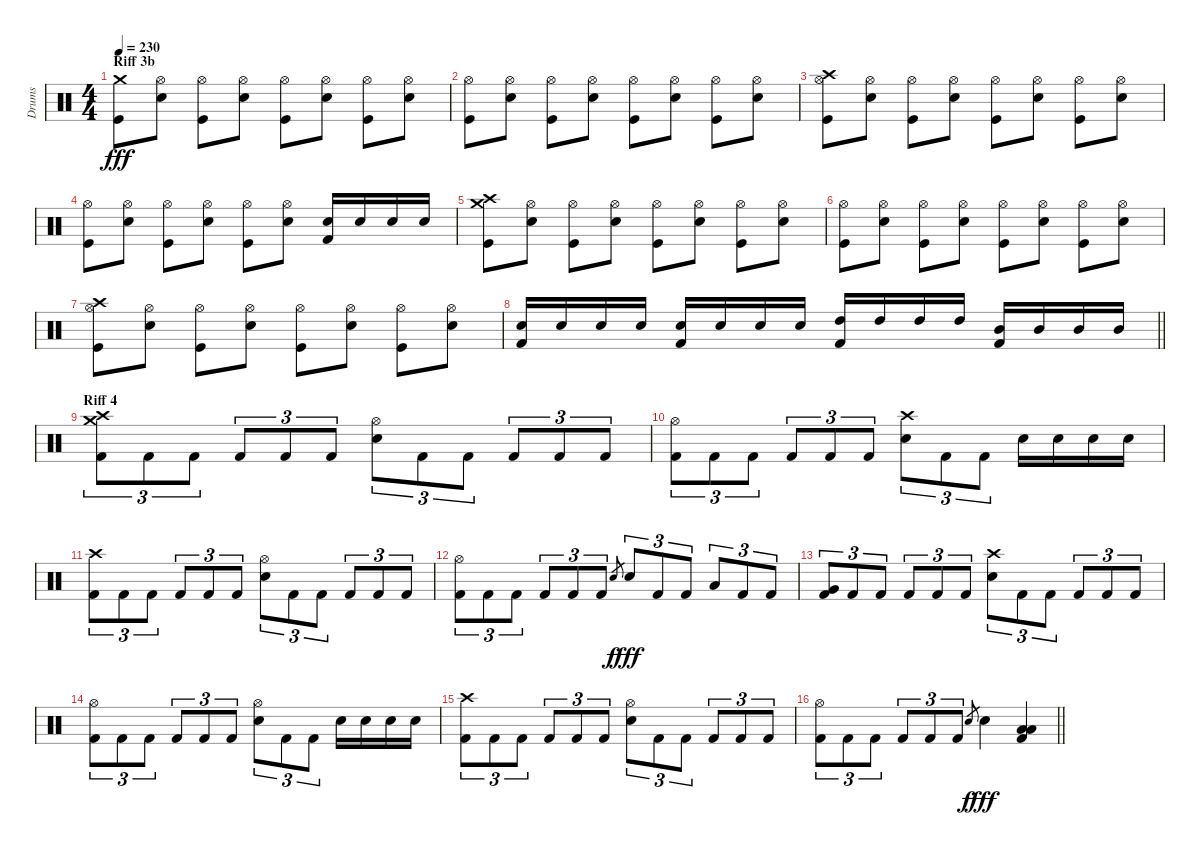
\track ("Drums" "Drums") {instrument percussion}
\staff {score}
\articulation defaults
\ts (4 4)
\section ("" "Riff 3b")
\tempo 230
\clef neutral
\ks c
("Crash medium (hit)" "Kick (hit)").8{dy fff} ("Hi-Hat (open)" "Snare (hit) 2").8 ("Hi-Hat (open)" "Kick (hit)").8 ("Hi-Hat (open)" "Snare (hit) 2").8 ("Hi-Hat (open)" "Kick (hit)").8 ("Hi-Hat (open)" "Snare (hit) 2").8 ("Hi-Hat (open)" "Kick (hit)").8 ("Hi-Hat (open)" "Snare (hit) 2").8 |
("Hi-Hat (open)" "Kick (hit)").8 ("Hi-Hat (open)" "Snare (hit) 2").8 ("Hi-Hat (open)" "Kick (hit)").8 ("Hi-Hat (open)" "Snare (hit) 2").8 ("Hi-Hat (open)" "Kick (hit)").8 ("Hi-Hat (open)" "Snare (hit) 2").8 ("Hi-Hat (open)" "Kick (hit)").8 ("Hi-Hat (open)" "Snare (hit) 2").8 |
("Crash high (hit)" "Hi-Hat (open)" "Kick (hit)").8 ("Hi-Hat (open)" "Snare (hit) 2").8 ("Hi-Hat (open)" "Kick (hit)").8 ("Hi-Hat (open)" "Snare (hit) 2").8 ("Hi-Hat (open)" "Kick (hit)").8 ("Hi-Hat (open)" "Snare (hit) 2").8 ("Hi-Hat (open)" "Kick (hit)").8 ("Hi-Hat (open)" "Snare (hit) 2").8 |
("Hi-Hat (open)" "Kick (hit)").8 ("Hi-Hat (open)" "Snare (hit) 2").8 ("Hi-Hat (open)" "Kick (hit)").8 ("Hi-Hat (open)" "Snare (hit) 2").8 ("Hi-Hat (open)" "Kick (hit)").8 ("Hi-Hat (open)" "Snare (hit) 2").8 ("Electric Snare (hit)" "Kick (hit) 2").16 "Electric Snare (hit)".16 "Electric Snare (hit)".16 "Electric Snare (hit)".16 |
("Crash medium (hit)" "Crash high (hit)" "Kick (hit)").8 ("Hi-Hat (open)" "Snare (hit) 2").8 ("Hi-Hat (open)" "Kick (hit)").8 ("Hi-Hat (open)" "Snare (hit) 2").8 ("Hi-Hat (open)" "Kick (hit)").8 ("Hi-Hat (open)" "Snare (hit) 2").8 ("Hi-Hat (open)" "Kick (hit)").8 ("Hi-Hat (open)" "Snare (hit) 2").8 |
("Hi-Hat (open)" "Kick (hit)").8 ("Hi-Hat (open)" "Snare (hit) 2").8 ("Hi-Hat (open)" "Kick (hit)").8 ("Hi-Hat (open)" "Snare (hit) 2").8 ("Hi-Hat (open)" "Kick (hit)").8 ("Hi-Hat (open)" "Snare (hit) 2").8 ("Hi-Hat (open)" "Kick (hit)").8 ("Hi-Hat (open)" "Snare (hit) 2").8 |
("Crash high (hit)" "Hi-Hat (open)" "Kick (hit)").8 ("Hi-Hat (open)" "Snare (hit) 2").8 ("Hi-Hat (open)" "Kick (hit)").8 ("Hi-Hat (open)" "Snare (hit) 2").8 ("Hi-Hat (open)" "Kick (hit)").8 ("Hi-Hat (open)" "Snare (hit) 2").8 ("Hi-Hat (open)" "Kick (hit)").8 ("Hi-Hat (open)" "Snare (hit) 2").8 |
\barLineRight lightlight
("Electric Snare (hit)" "Kick (hit) 2").16 "Electric Snare (hit)".16 "Electric Snare (hit)".16 "Electric Snare (hit)".16 ("Electric Snare (hit)" "Kick (hit) 2").16 "Electric Snare (hit)".16 "Electric Snare (hit)".16 "Electric Snare (hit)".16 ("High Tom (hit)" "Kick (hit) 2").16 "High Tom (hit)".16 "High Tom (hit)".16 "High Tom (hit)".16 ("Mid Tom (hit)" "Kick (hit) 2").16 "Mid Tom (hit)".16 "Mid Tom (hit)".16 "Mid Tom (hit)".16 |
\section ("" "Riff 4")
("Crash medium (hit)" "Crash high (hit)" "Kick (hit) 2").8{tu (3 2)} "Kick (hit) 2".8{tu (3 2)} "Kick (hit) 2".8{tu (3 2)} "Kick (hit) 2".8{tu (3 2)} "Kick (hit) 2".8{tu (3 2)} "Kick (hit) 2".8{tu (3 2)} ("Hi-Hat (open)" "Electric Snare (hit)").8{tu (3 2)} "Kick (hit) 2".8{tu (3 2)} "Kick (hit) 2".8{tu (3 2)} "Kick (hit) 2".8{tu (3 2)} "Kick (hit) 2".8{tu (3 2)} "Kick (hit) 2".8{tu (3 2)} |
("Hi-Hat (open)" "Kick (hit) 2").8{tu (3 2)} "Kick (hit) 2".8{tu (3 2)} "Kick (hit) 2".8{tu (3 2)} "Kick (hit) 2".8{tu (3 2)} "Kick (hit) 2".8{tu (3 2)} "Kick (hit) 2".8{tu (3 2)} ("Crash high (hit)" "Electric Snare (hit)").8{tu (3 2)} "Kick (hit) 2".8{tu (3 2)} "Kick (hit) 2".8{tu (3 2)} "Electric Snare (hit)".16 "Electric Snare (hit)".16 "Electric Snare (hit)".16 "Electric Snare (hit)".16 |
("Crash high (hit)" "Kick (hit) 2").8{tu (3 2)} "Kick (hit) 2".8{tu (3 2)} "Kick (hit) 2".8{tu (3 2)} "Kick (hit) 2".8{tu (3 2)} "Kick (hit) 2".8{tu (3 2)} "Kick (hit) 2".8{tu (3 2)} ("Hi-Hat (open)" "Electric Snare (hit)").8{tu (3 2)} "Kick (hit) 2".8{tu (3 2)} "Kick (hit) 2".8{tu (3 2)} "Kick (hit) 2".8{tu (3 2)} "Kick (hit) 2".8{tu (3 2)} "Kick (hit) 2".8{tu (3 2)} |
("Hi-Hat (open)" "Kick (hit) 2").8{tu (3 2)} "Kick (hit) 2".8{tu (3 2)} "Kick (hit) 2".8{tu (3 2)} "Kick (hit) 2".8{tu (3 2)} "Kick (hit) 2".8{tu (3 2)} "Kick (hit) 2".8{tu (3 2)} "Electric Snare (hit)".8{gr dy f} "Electric Snare (hit)".8{tu (3 2) dy fff} "Kick (hit) 2".8{tu (3 2)} "Kick (hit) 2".8{tu (3 2)} "Low Tom (hit)".8{tu (3 2)} "Kick (hit) 2".8{tu (3 2)} "Kick (hit) 2".8{tu (3 2)} |
("Very Low Tom (hit)" "Kick (hit) 2").8{tu (3 2)} "Kick (hit) 2".8{tu (3 2)} "Kick (hit) 2".8{tu (3 2)} "Kick (hit) 2".8{tu (3 2)} "Kick (hit) 2".8{tu (3 2)} "Kick (hit) 2".8{tu (3 2)} ("Crash high (hit)" "Electric Snare (hit)").8{tu (3 2)} "Kick (hit) 2".8{tu (3 2)} "Kick (hit) 2".8{tu (3 2)} "Kick (hit) 2".8{tu (3 2)} "Kick (hit) 2".8{tu (3 2)} "Kick (hit) 2".8{tu (3 2)} |
("Hi-Hat (open)" "Kick (hit) 2").8{tu (3 2)} "Kick (hit) 2".8{tu (3 2)} "Kick (hit) 2".8{tu (3 2)} "Kick (hit) 2".8{tu (3 2)} "Kick (hit) 2".8{tu (3 2)} "Kick (hit) 2".8{tu (3 2)} ("Hi-Hat (open)" "Electric Snare (hit)").8{tu (3 2)} "Kick (hit) 2".8{tu (3 2)} "Kick (hit) 2".8{tu (3 2)} "Electric Snare (hit)".16 "Electric Snare (hit)".16 "Electric Snare (hit)".16 "Electric Snare (hit)".16 |
("Crash high (hit)" "Kick (hit) 2").8{tu (3 2)} "Kick (hit) 2".8{tu (3 2)} "Kick (hit) 2".8{tu (3 2)} "Kick (hit) 2".8{tu (3 2)} "Kick (hit) 2".8{tu (3 2)} "Kick (hit) 2".8{tu (3 2)} ("Hi-Hat (open)" "Electric Snare (hit)").8{tu (3 2)} "Kick (hit) 2".8{tu (3 2)} "Kick (hit) 2".8{tu (3 2)} "Kick (hit) 2".8{tu (3 2)} "Kick (hit) 2".8{tu (3 2)} "Kick (hit) 2".8{tu (3 2)} |
\barLineRight lightlight
("Hi-Hat (open)" "Kick (hit) 2").8{tu (3 2)} "Kick (hit) 2".8{tu (3 2)} "Kick (hit) 2".8{tu (3 2)} "Kick (hit) 2".8{tu (3 2)} "Kick (hit) 2".8{tu (3 2)} "Kick (hit) 2".8{tu (3 2)} "Electric Snare (hit)".8{gr dy f} "Electric Snare (hit)".4{dy fff} ("Low Tom (hit)" "Low Floor Tom (hit)" "Kick (hit) 2").4
